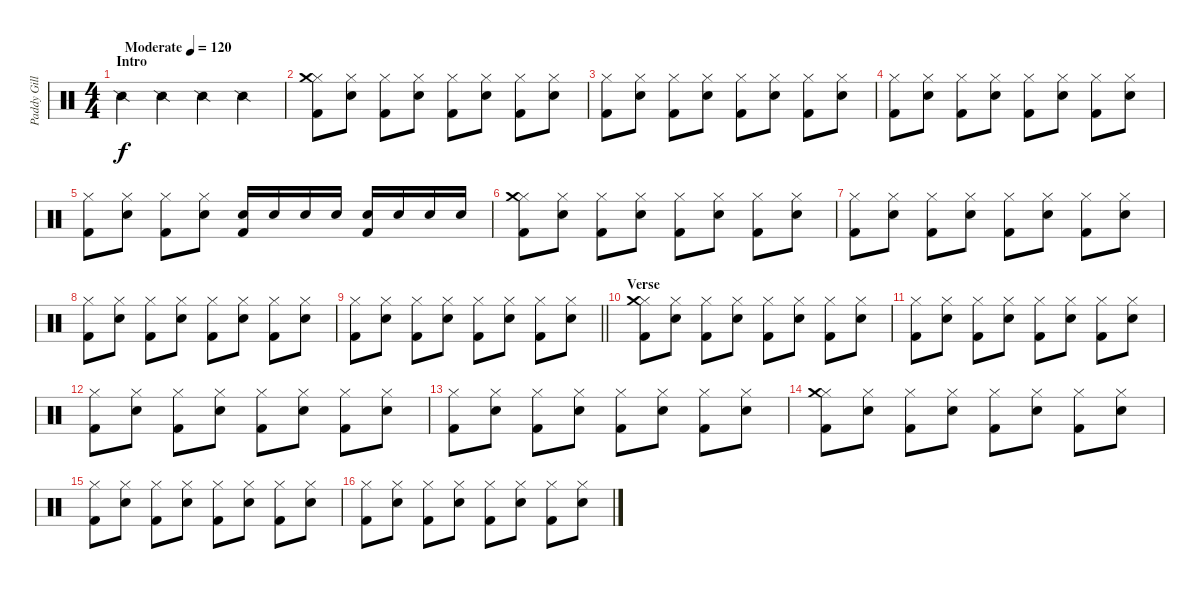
\track ("Paddy Gillespie" "Paddy Gill") {instrument percussion}
\staff {score}
\articulation defaults
\ts (4 4)
\section ("" "Intro")
\tempo (120 "Moderate")
\clef neutral
\ks c "Snare (side stick) 2".4{dy f} "Snare (side stick) 2".4 "Snare (side stick) 2".4 "Snare (side stick) 2".4
|
("Hi-Hat (closed)" "Kick (hit) 2" "Crash medium (hit)").8 ("Hi-Hat (closed)" "Snare (hit) 2").8 ("Hi-Hat (closed)" "Kick (hit) 2").8 ("Hi-Hat (closed)" "Snare (hit) 2").8 ("Hi-Hat (closed)" "Kick (hit) 2").8 ("Hi-Hat (closed)" "Snare (hit) 2").8 ("Hi-Hat (closed)" "Kick (hit) 2").8 ("Hi-Hat (closed)" "Snare (hit) 2").8 |
("Hi-Hat (closed)" "Kick (hit) 2").8 ("Hi-Hat (closed)" "Snare (hit) 2").8 ("Hi-Hat (closed)" "Kick (hit) 2").8 ("Hi-Hat (closed)" "Snare (hit) 2").8 ("Hi-Hat (closed)" "Kick (hit) 2").8 ("Hi-Hat (closed)" "Snare (hit) 2").8 ("Hi-Hat (closed)" "Kick (hit) 2").8 ("Hi-Hat (closed)" "Snare (hit) 2").8 |
("Hi-Hat (closed)" "Kick (hit) 2").8 ("Hi-Hat (closed)" "Snare (hit) 2").8 ("Hi-Hat (closed)" "Kick (hit) 2").8 ("Hi-Hat (closed)" "Snare (hit) 2").8 ("Hi-Hat (closed)" "Kick (hit) 2").8 ("Hi-Hat (closed)" "Snare (hit) 2").8 ("Hi-Hat (closed)" "Kick (hit) 2").8 ("Hi-Hat (closed)" "Snare (hit) 2").8 |
("Hi-Hat (closed)" "Kick (hit) 2").8 ("Hi-Hat (closed)" "Snare (hit) 2").8 ("Hi-Hat (closed)" "Kick (hit) 2").8 ("Hi-Hat (closed)" "Snare (hit) 2").8 ("Snare (hit) 2" "Kick (hit) 2").16 "Snare (hit) 2".16 "Snare (hit) 2".16 "Snare (hit) 2".16 ("Snare (hit) 2" "Kick (hit) 2").16 "Snare (hit) 2".16 "Snare (hit) 2".16 "Snare (hit) 2".16 |
("Hi-Hat (closed)" "Kick (hit) 2" "Crash medium (hit)").8 ("Hi-Hat (closed)" "Snare (hit) 2").8 ("Hi-Hat (closed)" "Kick (hit) 2").8 ("Hi-Hat (closed)" "Snare (hit) 2").8 ("Hi-Hat (closed)" "Kick (hit) 2").8 ("Hi-Hat (closed)" "Snare (hit) 2").8 ("Hi-Hat (closed)" "Kick (hit) 2").8 ("Hi-Hat (closed)" "Snare (hit) 2").8 |
("Hi-Hat (closed)" "Kick (hit) 2").8 ("Hi-Hat (closed)" "Snare (hit) 2").8 ("Hi-Hat (closed)" "Kick (hit) 2").8 ("Hi-Hat (closed)" "Snare (hit) 2").8 ("Hi-Hat (closed)" "Kick (hit) 2").8 ("Hi-Hat (closed)" "Snare (hit) 2").8 ("Hi-Hat (closed)" "Kick (hit) 2").8 ("Hi-Hat (closed)" "Snare (hit) 2").8 |
("Hi-Hat (closed)" "Kick (hit) 2").8 ("Hi-Hat (closed)" "Snare (hit) 2").8 ("Hi-Hat (closed)" "Kick (hit) 2").8 ("Hi-Hat (closed)" "Snare (hit) 2").8 ("Hi-Hat (closed)" "Kick (hit) 2").8 ("Hi-Hat (closed)" "Snare (hit) 2").8 ("Hi-Hat (closed)" "Kick (hit) 2").8 ("Hi-Hat (closed)" "Snare (hit) 2").8 |
\barLineRight lightlight
("Hi-Hat (closed)" "Kick (hit) 2").8 ("Hi-Hat (closed)" "Snare (hit) 2").8 ("Hi-Hat (closed)" "Kick (hit) 2").8 ("Hi-Hat (closed)" "Snare (hit) 2").8 ("Hi-Hat (closed)" "Kick (hit) 2").8 ("Hi-Hat (closed)" "Snare (hit) 2").8 ("Hi-Hat (closed)" "Kick (hit) 2").8 ("Hi-Hat (closed)" "Snare (hit) 2").8 |
\section ("" "Verse")
("Hi-Hat (closed)" "Kick (hit) 2" "Crash medium (hit)").8 ("Hi-Hat (closed)" "Snare (hit) 2").8 ("Hi-Hat (closed)" "Kick (hit) 2").8 ("Hi-Hat (closed)" "Snare (hit) 2").8 ("Hi-Hat (closed)" "Kick (hit) 2").8 ("Hi-Hat (closed)" "Snare (hit) 2").8 ("Hi-Hat (closed)" "Kick (hit) 2").8 ("Hi-Hat (closed)" "Snare (hit) 2").8 |
("Hi-Hat (closed)" "Kick (hit) 2").8 ("Hi-Hat (closed)" "Snare (hit) 2").8 ("Hi-Hat (closed)" "Kick (hit) 2").8 ("Hi-Hat (closed)" "Snare (hit) 2").8 ("Hi-Hat (closed)" "Kick (hit) 2").8 ("Hi-Hat (closed)" "Snare (hit) 2").8 ("Hi-Hat (closed)" "Kick (hit) 2").8 ("Hi-Hat (closed)" "Snare (hit) 2").8 |
("Hi-Hat (closed)" "Kick (hit) 2").8 ("Hi-Hat (closed)" "Snare (hit) 2").8 ("Hi-Hat (closed)" "Kick (hit) 2").8 ("Hi-Hat (closed)" "Snare (hit) 2").8 ("Hi-Hat (closed)" "Kick (hit) 2").8 ("Hi-Hat (closed)" "Snare (hit) 2").8 ("Hi-Hat (closed)" "Kick (hit) 2").8 ("Hi-Hat (closed)" "Snare (hit) 2").8 |
("Hi-Hat (closed)" "Kick (hit) 2").8 ("Hi-Hat (closed)" "Snare (hit) 2").8 ("Hi-Hat (closed)" "Kick (hit) 2").8 ("Hi-Hat (closed)" "Snare (hit) 2").8 ("Hi-Hat (closed)" "Kick (hit) 2").8 ("Hi-Hat (closed)" "Snare (hit) 2").8 ("Hi-Hat (closed)" "Kick (hit) 2").8 ("Hi-Hat (closed)" "Snare (hit) 2").8 |
("Hi-Hat (closed)" "Kick (hit) 2" "Crash medium (hit)").8 ("Hi-Hat (closed)" "Snare (hit) 2").8 ("Hi-Hat (closed)" "Kick (hit) 2").8 ("Hi-Hat (closed)" "Snare (hit) 2").8 ("Hi-Hat (closed)" "Kick (hit) 2").8 ("Hi-Hat (closed)" "Snare (hit) 2").8 ("Hi-Hat (closed)" "Kick (hit) 2").8 ("Hi-Hat (closed)" "Snare (hit) 2").8 |
("Hi-Hat (closed)" "Kick (hit) 2").8 ("Hi-Hat (closed)" "Snare (hit) 2").8 ("Hi-Hat (closed)" "Kick (hit) 2").8 ("Hi-Hat (closed)" "Snare (hit) 2").8 ("Hi-Hat (closed)" "Kick (hit) 2").8 ("Hi-Hat (closed)" "Snare (hit) 2").8 ("Hi-Hat (closed)" "Kick (hit) 2").8 ("Hi-Hat (closed)" "Snare (hit) 2").8 |
("Hi-Hat (closed)" "Kick (hit) 2").8 ("Hi-Hat (closed)" "Snare (hit) 2").8 ("Hi-Hat (closed)" "Kick (hit) 2").8 ("Hi-Hat (closed)" "Snare (hit) 2").8 ("Hi-Hat (closed)" "Kick (hit) 2").8 ("Hi-Hat (closed)" "Snare (hit) 2").8 ("Hi-Hat (closed)" "Kick (hit) 2").8 ("Hi-Hat (closed)" "Snare (hit) 2").8
